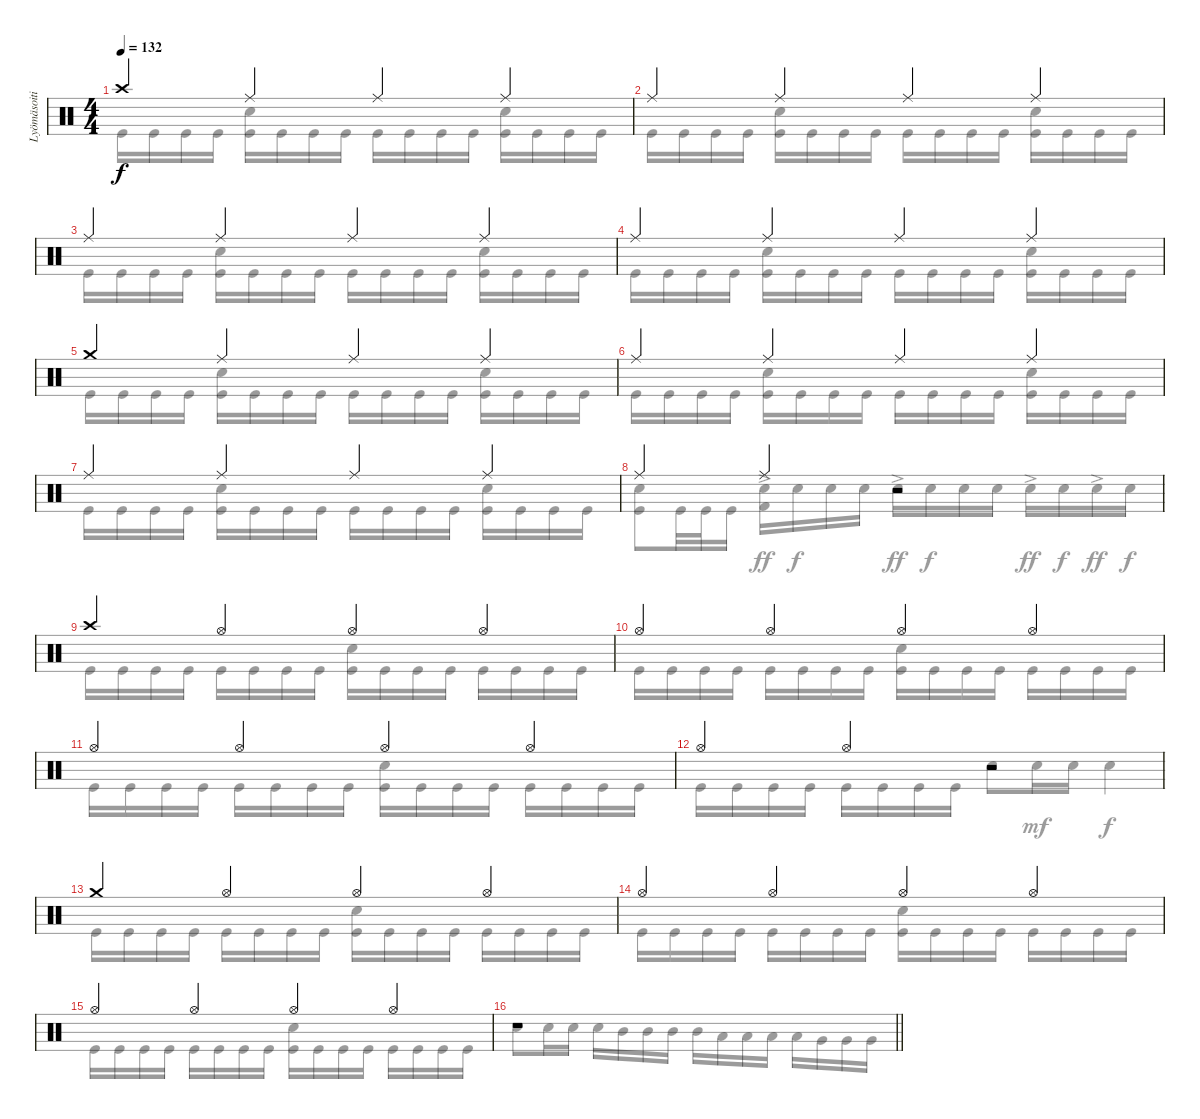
\track ("Lyömäsoitin" "Lyömäsoiti") {instrument percussion}
\staff {score}
\articulation defaults
\voice
\ts (4 4)
\tempo 132
\clef neutral
\ks c "Crash high (hit)".4{dy f} "Ride (middle)".4 "Ride (middle)".4 "Ride (middle)".4
|
"Ride (middle)".4 "Ride (middle)".4 "Ride (middle)".4 "Ride (middle)".4 |
"Ride (middle)".4 "Ride (middle)".4 "Ride (middle)".4 "Ride (middle)".4 |
"Ride (middle)".4 "Ride (middle)".4 "Ride (middle)".4 "Ride (middle)".4 |
"Crash medium (hit)".4 "Ride (middle)".4 "Ride (middle)".4 "Ride (middle)".4 |
"Ride (middle)".4 "Ride (middle)".4 "Ride (middle)".4 "Ride (middle)".4 |
"Ride (middle)".4 "Ride (middle)".4 "Ride (middle)".4 "Ride (middle)".4 |
"Ride (middle)".4 "Ride (middle)".4 r.2 |
"Crash high (hit)".4 "Hi-Hat (open)".4 "Hi-Hat (open)".4 "Hi-Hat (open)".4 |
"Hi-Hat (open)".4 "Hi-Hat (open)".4 "Hi-Hat (open)".4 "Hi-Hat (open)".4 |
"Hi-Hat (open)".4 "Hi-Hat (open)".4 "Hi-Hat (open)".4 "Hi-Hat (open)".4 |
"Hi-Hat (open)".4 "Hi-Hat (open)".4 r.2 |
"Crash medium (hit)".4 "Hi-Hat (open)".4 "Hi-Hat (open)".4 "Hi-Hat (open)".4 |
"Hi-Hat (open)".4 "Hi-Hat (open)".4 "Hi-Hat (open)".4 "Hi-Hat (open)".4 |
"Hi-Hat (open)".4 "Hi-Hat (open)".4 "Hi-Hat (open)".4 "Hi-Hat (open)".4 |
\barLineRight lightlight
r.1
\voice
\clef neutral
\ottava regular
\simile none
\ks c "Kick (hit)".16{dy f} "Kick (hit)".16 "Kick (hit)".16 "Kick (hit)".16
("Snare (hit) 2" "Kick (hit)").16 "Kick (hit)".16 "Kick (hit)".16 "Kick (hit)".16 "Kick (hit)".16 "Kick (hit)".16 "Kick (hit)".16 "Kick (hit)".16 ("Snare (hit) 2" "Kick (hit)").16 "Kick (hit)".16 "Kick (hit)".16 "Kick (hit)".16 |
"Kick (hit)".16 "Kick (hit)".16 "Kick (hit)".16 "Kick (hit)".16 ("Snare (hit) 2" "Kick (hit)").16 "Kick (hit)".16 "Kick (hit)".16 "Kick (hit)".16 "Kick (hit)".16 "Kick (hit)".16 "Kick (hit)".16 "Kick (hit)".16 ("Snare (hit) 2" "Kick (hit)").16 "Kick (hit)".16 "Kick (hit)".16 "Kick (hit)".16 |
"Kick (hit)".16 "Kick (hit)".16 "Kick (hit)".16 "Kick (hit)".16 ("Snare (hit) 2" "Kick (hit)").16 "Kick (hit)".16 "Kick (hit)".16 "Kick (hit)".16 "Kick (hit)".16 "Kick (hit)".16 "Kick (hit)".16 "Kick (hit)".16 ("Snare (hit) 2" "Kick (hit)").16 "Kick (hit)".16 "Kick (hit)".16 "Kick (hit)".16 |
"Kick (hit)".16 "Kick (hit)".16 "Kick (hit)".16 "Kick (hit)".16 ("Snare (hit) 2" "Kick (hit)").16 "Kick (hit)".16 "Kick (hit)".16 "Kick (hit)".16 "Kick (hit)".16 "Kick (hit)".16 "Kick (hit)".16 "Kick (hit)".16 ("Snare (hit) 2" "Kick (hit)").16 "Kick (hit)".16 "Kick (hit)".16 "Kick (hit)".16 |
"Kick (hit)".16 "Kick (hit)".16 "Kick (hit)".16 "Kick (hit)".16 ("Snare (hit) 2" "Kick (hit)").16 "Kick (hit)".16 "Kick (hit)".16 "Kick (hit)".16 "Kick (hit)".16 "Kick (hit)".16 "Kick (hit)".16 "Kick (hit)".16 ("Snare (hit) 2" "Kick (hit)").16 "Kick (hit)".16 "Kick (hit)".16 "Kick (hit)".16 |
"Kick (hit)".16 "Kick (hit)".16 "Kick (hit)".16 "Kick (hit)".16 ("Snare (hit) 2" "Kick (hit)").16 "Kick (hit)".16 "Kick (hit)".16 "Kick (hit)".16 "Kick (hit)".16 "Kick (hit)".16 "Kick (hit)".16 "Kick (hit)".16 ("Snare (hit) 2" "Kick (hit)").16 "Kick (hit)".16 "Kick (hit)".16 "Kick (hit)".16 |
"Kick (hit)".16 "Kick (hit)".16 "Kick (hit)".16 "Kick (hit)".16 ("Snare (hit) 2" "Kick (hit)").16 "Kick (hit)".16 "Kick (hit)".16 "Kick (hit)".16 "Kick (hit)".16 "Kick (hit)".16 "Kick (hit)".16 "Kick (hit)".16 ("Snare (hit) 2" "Kick (hit)").16 "Kick (hit)".16 "Kick (hit)".16 "Kick (hit)".16 |
("Snare (hit) 2" "Kick (hit)").8 "Kick (hit)".32 "Kick (hit)".32 "Kick (hit)".16 ("Snare (hit) 2"{ac} "Kick (hit) 2").16{dy ff} "Snare (hit) 2".16{dy f} "Snare (hit) 2".16 "Snare (hit) 2".16 "Snare (hit) 2"{ac}.16{dy ff} "Snare (hit) 2".16{dy f} "Snare (hit) 2".16 "Snare (hit) 2".16 "Snare (hit) 2"{ac}.16{dy ff} "Snare (hit) 2".16{dy f} "Snare (hit) 2"{ac}.16{dy ff} "Snare (hit) 2".16{dy f} |
"Kick (hit)".16 "Kick (hit)".16 "Kick (hit)".16 "Kick (hit)".16 "Kick (hit)".16 "Kick (hit)".16 "Kick (hit)".16 "Kick (hit)".16 ("Snare (hit) 2" "Kick (hit)").16 "Kick (hit)".16 "Kick (hit)".16 "Kick (hit)".16 "Kick (hit)".16 "Kick (hit)".16 "Kick (hit)".16 "Kick (hit)".16 |
"Kick (hit)".16 "Kick (hit)".16 "Kick (hit)".16 "Kick (hit)".16 "Kick (hit)".16 "Kick (hit)".16 "Kick (hit)".16 "Kick (hit)".16 ("Snare (hit) 2" "Kick (hit)").16 "Kick (hit)".16 "Kick (hit)".16 "Kick (hit)".16 "Kick (hit)".16 "Kick (hit)".16 "Kick (hit)".16 "Kick (hit)".16 |
"Kick (hit)".16 "Kick (hit)".16 "Kick (hit)".16 "Kick (hit)".16 "Kick (hit)".16 "Kick (hit)".16 "Kick (hit)".16 "Kick (hit)".16 ("Snare (hit) 2" "Kick (hit)").16 "Kick (hit)".16 "Kick (hit)".16 "Kick (hit)".16 "Kick (hit)".16 "Kick (hit)".16 "Kick (hit)".16 "Kick (hit)".16 |
"Kick (hit)".16 "Kick (hit)".16 "Kick (hit)".16 "Kick (hit)".16 "Kick (hit)".16 "Kick (hit)".16 "Kick (hit)".16 "Kick (hit)".16 "Snare (hit) 2".8 "Snare (hit) 2".16{dy mf} "Snare (hit) 2".16 "Snare (hit) 2".4{dy f} |
"Kick (hit)".16 "Kick (hit)".16 "Kick (hit)".16 "Kick (hit)".16 "Kick (hit)".16 "Kick (hit)".16 "Kick (hit)".16 "Kick (hit)".16 ("Snare (hit) 2" "Kick (hit)").16 "Kick (hit)".16 "Kick (hit)".16 "Kick (hit)".16 "Kick (hit)".16 "Kick (hit)".16 "Kick (hit)".16 "Kick (hit)".16 |
"Kick (hit)".16 "Kick (hit)".16 "Kick (hit)".16 "Kick (hit)".16 "Kick (hit)".16 "Kick (hit)".16 "Kick (hit)".16 "Kick (hit)".16 ("Snare (hit) 2" "Kick (hit)").16 "Kick (hit)".16 "Kick (hit)".16 "Kick (hit)".16 "Kick (hit)".16 "Kick (hit)".16 "Kick (hit)".16 "Kick (hit)".16 |
"Kick (hit)".16 "Kick (hit)".16 "Kick (hit)".16 "Kick (hit)".16 "Kick (hit)".16 "Kick (hit)".16 "Kick (hit)".16 "Kick (hit)".16 ("Snare (hit) 2" "Kick (hit)").16 "Kick (hit)".16 "Kick (hit)".16 "Kick (hit)".16 "Kick (hit)".16 "Kick (hit)".16 "Kick (hit)".16 "Kick (hit)".16 |
\barLineRight lightlight "Snare (hit) 2".8 "Snare (hit) 2".16 "Snare (hit) 2".16 "Snare (hit) 2".16 "Mid Tom (hit)".16 "Mid Tom (hit)".16 "Mid Tom (hit)".16 "Mid Tom (hit)".16 "Low Tom (hit)".16 "Low Tom (hit)".16 "Low Tom (hit)".16 "Low Tom (hit)".16 "Very Low Tom (hit)".16 "Very Low Tom (hit)".16 "Very Low Tom (hit)".16
